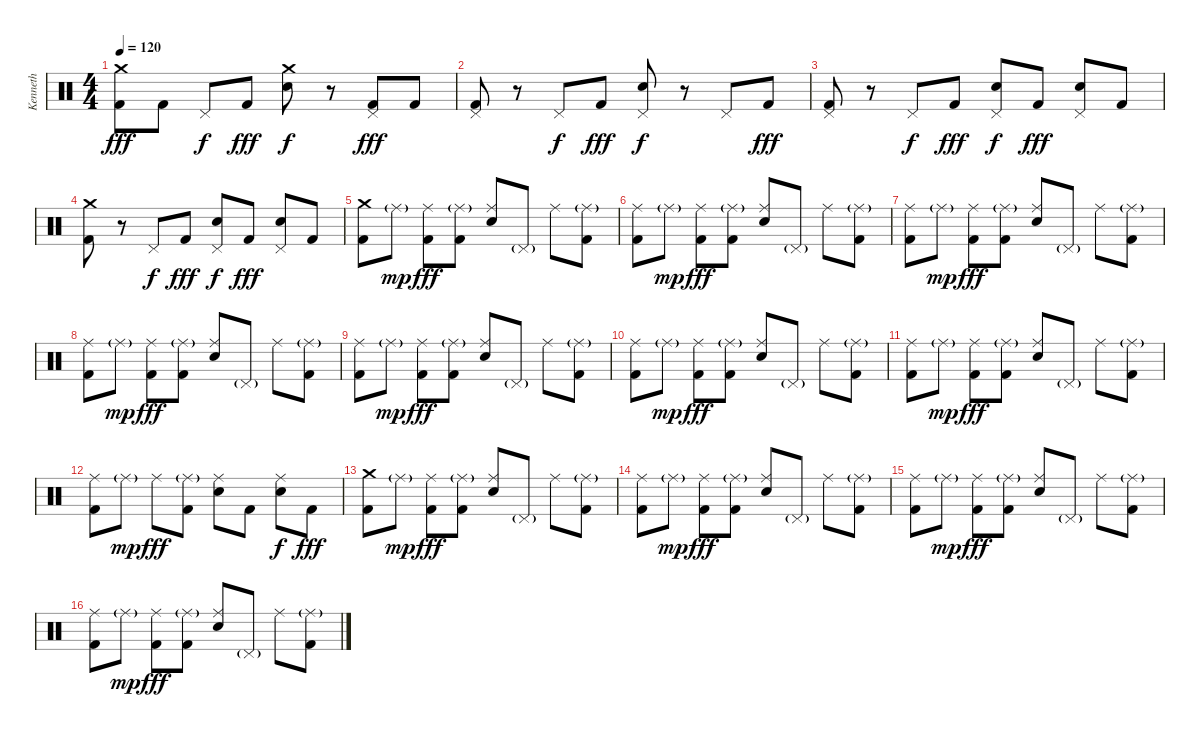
\track ("Kenneth" "Kenneth") {instrument percussion}
\staff {score}
\articulation defaults
\ts (4 4)
\tempo 120
\clef neutral
\ks c
("Crash medium (hit)" "Kick (hit) 2").8{dy fff} "Kick (hit) 2".8 "Pedal Hi-Hat (hit)".8{dy f} "Kick (hit) 2".8{dy fff} ("Crash medium (hit)" "Electric Snare (hit)").8{dy f} r.8 ("Pedal Hi-Hat (hit)" "Kick (hit) 2").8{dy fff} "Kick (hit) 2".8 |
("Pedal Hi-Hat (hit)" "Kick (hit) 2").8 r.8 "Pedal Hi-Hat (hit)".8{dy f} "Kick (hit) 2".8{dy fff} ("Pedal Hi-Hat (hit)" "Electric Snare (hit)").8{dy f} r.8 "Pedal Hi-Hat (hit)".8 "Kick (hit) 2".8{dy fff} |
("Pedal Hi-Hat (hit)" "Kick (hit) 2").8 r.8 "Pedal Hi-Hat (hit)".8{dy f} "Kick (hit) 2".8{dy fff} ("Pedal Hi-Hat (hit)" "Electric Snare (hit)").8{dy f} "Kick (hit) 2".8{dy fff} ("Pedal Hi-Hat (hit)" "Electric Snare (hit)").8 "Kick (hit) 2".8 |
("Crash medium (hit)" "Kick (hit) 2").8 r.8 "Pedal Hi-Hat (hit)".8{dy f} "Kick (hit) 2".8{dy fff} ("Pedal Hi-Hat (hit)" "Electric Snare (hit)").8{dy f} "Kick (hit) 2".8{dy fff} ("Pedal Hi-Hat (hit)" "Electric Snare (hit)").8 "Kick (hit) 2".8 |
("Crash medium (hit)" "Kick (hit) 2").8 "Ride (middle)"{g}.8{dy mp} ("Ride (middle)" "Kick (hit) 2").8{dy fff} ("Ride (middle)"{g} "Kick (hit) 2").8 ("Ride (middle)" "Electric Snare (hit)").8 "Pedal Hi-Hat (hit)"{g}.8 "Ride (middle)".8 ("Ride (middle)"{g} "Kick (hit) 2").8 |
("Ride (middle)" "Kick (hit) 2").8 "Ride (middle)"{g}.8{dy mp} ("Ride (middle)" "Kick (hit) 2").8{dy fff} ("Ride (middle)"{g} "Kick (hit) 2").8 ("Ride (middle)" "Electric Snare (hit)").8 "Pedal Hi-Hat (hit)"{g}.8 "Ride (middle)".8 ("Ride (middle)"{g} "Kick (hit) 2").8 |
("Ride (middle)" "Kick (hit) 2").8 "Ride (middle)"{g}.8{dy mp} ("Ride (middle)" "Kick (hit) 2").8{dy fff} ("Ride (middle)"{g} "Kick (hit) 2").8 ("Ride (middle)" "Electric Snare (hit)").8 "Pedal Hi-Hat (hit)"{g}.8 "Ride (middle)".8 ("Ride (middle)"{g} "Kick (hit) 2").8 |
("Ride (middle)" "Kick (hit) 2").8 "Ride (middle)"{g}.8{dy mp} ("Ride (middle)" "Kick (hit) 2").8{dy fff} ("Ride (middle)"{g} "Kick (hit) 2").8 ("Ride (middle)" "Electric Snare (hit)").8 "Pedal Hi-Hat (hit)"{g}.8 "Ride (middle)".8 ("Ride (middle)"{g} "Kick (hit) 2").8 |
("Ride (middle)" "Kick (hit) 2").8 "Ride (middle)"{g}.8{dy mp} ("Ride (middle)" "Kick (hit) 2").8{dy fff} ("Ride (middle)"{g} "Kick (hit) 2").8 ("Ride (middle)" "Electric Snare (hit)").8 "Pedal Hi-Hat (hit)"{g}.8 "Ride (middle)".8 ("Ride (middle)"{g} "Kick (hit) 2").8 |
("Ride (middle)" "Kick (hit) 2").8 "Ride (middle)"{g}.8{dy mp} ("Ride (middle)" "Kick (hit) 2").8{dy fff} ("Ride (middle)"{g} "Kick (hit) 2").8 ("Ride (middle)" "Electric Snare (hit)").8 "Pedal Hi-Hat (hit)"{g}.8 "Ride (middle)".8 ("Ride (middle)"{g} "Kick (hit) 2").8 |
("Ride (middle)" "Kick (hit) 2").8 "Ride (middle)"{g}.8{dy mp} ("Ride (middle)" "Kick (hit) 2").8{dy fff} ("Ride (middle)"{g} "Kick (hit) 2").8 ("Ride (middle)" "Electric Snare (hit)").8 "Pedal Hi-Hat (hit)"{g}.8 "Ride (middle)".8 ("Ride (middle)"{g} "Kick (hit) 2").8 |
("Ride (middle)" "Kick (hit) 2").8 "Ride (middle)"{g}.8{dy mp} "Ride (middle)".8{dy fff} ("Ride (middle)"{g} "Kick (hit) 2").8 ("Ride (middle)" "Electric Snare (hit)").8 "Kick (hit) 2".8 ("Ride (middle)" "Electric Snare (hit)").8{dy f} "Kick (hit) 2".8{dy fff} |
("Crash medium (hit)" "Kick (hit) 2").8 "Ride (middle)"{g}.8{dy mp} ("Ride (middle)" "Kick (hit) 2").8{dy fff} ("Ride (middle)"{g} "Kick (hit) 2").8 ("Ride (middle)" "Electric Snare (hit)").8 "Pedal Hi-Hat (hit)"{g}.8 "Ride (middle)".8 ("Ride (middle)"{g} "Kick (hit) 2").8 |
("Ride (middle)" "Kick (hit) 2").8 "Ride (middle)"{g}.8{dy mp} ("Ride (middle)" "Kick (hit) 2").8{dy fff} ("Ride (middle)"{g} "Kick (hit) 2").8 ("Ride (middle)" "Electric Snare (hit)").8 "Pedal Hi-Hat (hit)"{g}.8 "Ride (middle)".8 ("Ride (middle)"{g} "Kick (hit) 2").8 |
("Ride (middle)" "Kick (hit) 2").8 "Ride (middle)"{g}.8{dy mp} ("Ride (middle)" "Kick (hit) 2").8{dy fff} ("Ride (middle)"{g} "Kick (hit) 2").8 ("Ride (middle)" "Electric Snare (hit)").8 "Pedal Hi-Hat (hit)"{g}.8 "Ride (middle)".8 ("Ride (middle)"{g} "Kick (hit) 2").8 |
("Ride (middle)" "Kick (hit) 2").8 "Ride (middle)"{g}.8{dy mp} ("Ride (middle)" "Kick (hit) 2").8{dy fff} ("Ride (middle)"{g} "Kick (hit) 2").8 ("Ride (middle)" "Electric Snare (hit)").8 "Pedal Hi-Hat (hit)"{g}.8 "Ride (middle)".8 ("Ride (middle)"{g} "Kick (hit) 2").8
